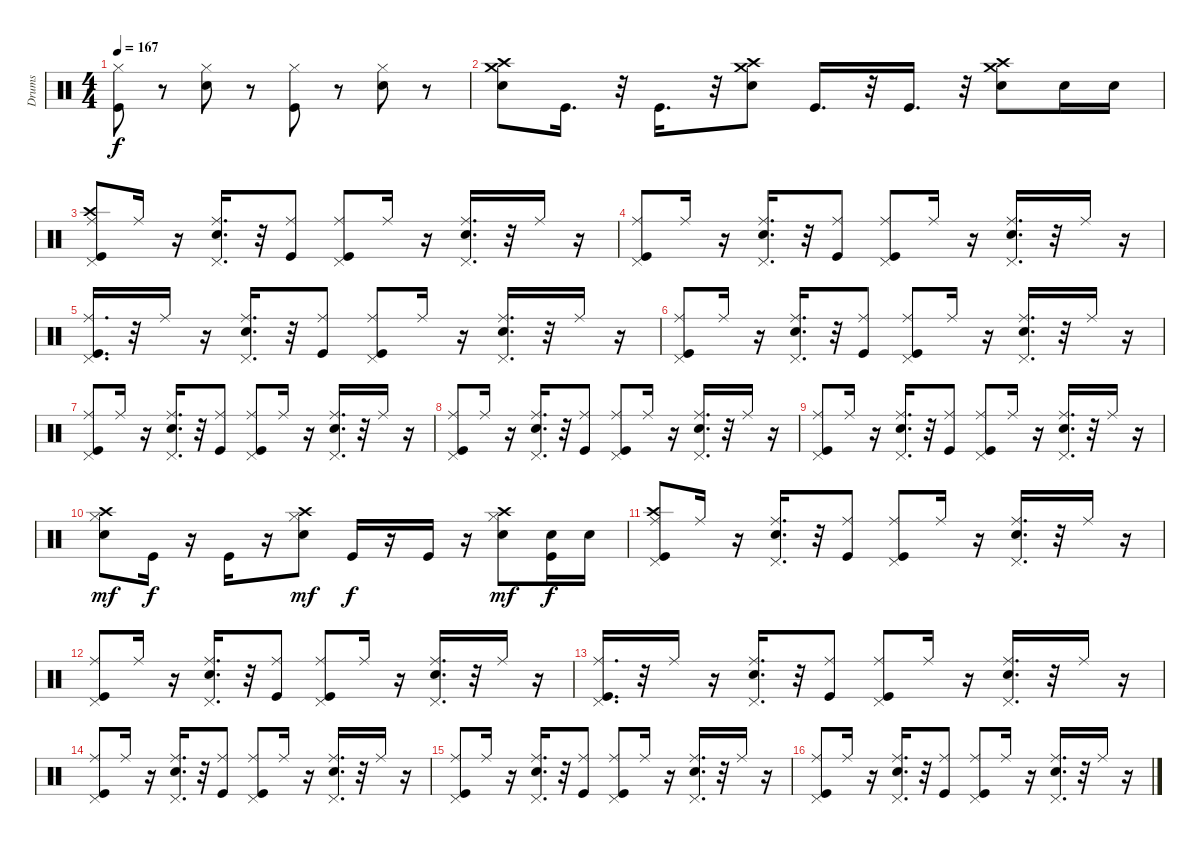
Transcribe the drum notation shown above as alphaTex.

\track ("Drums" "Drums") {instrument percussion}
\staff {score}
\articulation defaults
\ts (4 4)
\tempo 167
\clef neutral
\ks c
("Hi-Hat (closed)" "Kick (hit)").8{dy f} r.8 ("Hi-Hat (closed)" "Electric Snare (hit)").8 r.8 ("Hi-Hat (closed)" "Kick (hit)").8 r.8 ("Hi-Hat (closed)" "Electric Snare (hit)").8 r.8 |
("Crash medium (hit)" "Electric Snare (hit)" "Crash high (hit)").8 "Kick (hit)".16{d} r.32 "Kick (hit)".16{d} r.32 ("Crash medium (hit)" "Crash high (hit)" "Electric Snare (hit)").8 "Kick (hit)".16{d} r.32 "Kick (hit)".16{d} r.32 ("Crash medium (hit)" "Crash high (hit)" "Electric Snare (hit)").8 "Electric Snare (hit)".16 "Electric Snare (hit)".16 |
("Ride (middle)" "Crash high (hit)" "Kick (hit)" "Pedal Hi-Hat (hit)").8 "Ride (middle)".16 r.16 ("Electric Snare (hit)" "Pedal Hi-Hat (hit)" "Ride (middle)").16{d} r.32 ("Kick (hit)" "Ride (middle)").8 ("Kick (hit)" "Pedal Hi-Hat (hit)" "Ride (middle)").8 "Ride (middle)".16 r.16 ("Electric Snare (hit)" "Pedal Hi-Hat (hit)" "Ride (middle)").16{d} r.32 "Ride (middle)".16 r.16 |
("Ride (middle)" "Pedal Hi-Hat (hit)" "Kick (hit)").8 "Ride (middle)".16 r.16 ("Electric Snare (hit)" "Pedal Hi-Hat (hit)" "Ride (middle)").16{d} r.32 ("Kick (hit)" "Ride (middle)").8 ("Kick (hit)" "Pedal Hi-Hat (hit)" "Ride (middle)").8 "Ride (middle)".16 r.16 ("Ride (middle)" "Pedal Hi-Hat (hit)" "Electric Snare (hit)").16{d} r.32 "Ride (middle)".16 r.16 |
("Ride (middle)" "Pedal Hi-Hat (hit)" "Kick (hit)").16{d} r.32 "Ride (middle)".16 r.16 ("Ride (middle)" "Electric Snare (hit)" "Pedal Hi-Hat (hit)").16{d} r.32 ("Ride (middle)" "Kick (hit)").8 ("Pedal Hi-Hat (hit)" "Kick (hit)" "Ride (middle)").8 "Ride (middle)".16 r.16 ("Electric Snare (hit)" "Pedal Hi-Hat (hit)" "Ride (middle)").16{d} r.32 "Ride (middle)".16 r.16 |
("Kick (hit)" "Pedal Hi-Hat (hit)" "Ride (middle)").8 "Ride (middle)".16 r.16 ("Pedal Hi-Hat (hit)" "Electric Snare (hit)" "Ride (middle)").16{d} r.32 ("Kick (hit)" "Ride (middle)").8 ("Pedal Hi-Hat (hit)" "Ride (middle)" "Kick (hit)").8 "Ride (middle)".16 r.16 ("Pedal Hi-Hat (hit)" "Electric Snare (hit)" "Ride (middle)").16{d} r.32 "Ride (middle)".16 r.16 |
("Ride (middle)" "Kick (hit)" "Pedal Hi-Hat (hit)").8 "Ride (middle)".16 r.16 ("Pedal Hi-Hat (hit)" "Ride (middle)" "Electric Snare (hit)").16{d} r.32 ("Kick (hit)" "Ride (middle)").8 ("Pedal Hi-Hat (hit)" "Kick (hit)" "Ride (middle)").8 "Ride (middle)".16 r.16 ("Ride (middle)" "Electric Snare (hit)" "Pedal Hi-Hat (hit)").16{d} r.32 "Ride (middle)".16 r.16 |
("Ride (middle)" "Kick (hit)" "Pedal Hi-Hat (hit)").8 "Ride (middle)".16 r.16 ("Pedal Hi-Hat (hit)" "Ride (middle)" "Electric Snare (hit)").16{d} r.32 ("Kick (hit)" "Ride (middle)").8 ("Pedal Hi-Hat (hit)" "Kick (hit)" "Ride (middle)").8 "Ride (middle)".16 r.16 ("Electric Snare (hit)" "Pedal Hi-Hat (hit)" "Ride (middle)").16{d} r.32 "Ride (middle)".16 r.16 |
("Pedal Hi-Hat (hit)" "Ride (middle)" "Kick (hit)").8 "Ride (middle)".16 r.16 ("Ride (middle)" "Pedal Hi-Hat (hit)" "Electric Snare (hit)").16{d} r.32 ("Ride (middle)" "Kick (hit)").8 ("Pedal Hi-Hat (hit)" "Ride (middle)" "Kick (hit)").8 "Ride (middle)".16 r.16 ("Pedal Hi-Hat (hit)" "Ride (middle)" "Electric Snare (hit)").16{d} r.32 "Ride (middle)".16 r.16 |
("Hi-Hat (closed)" "Electric Snare (hit)" "Crash high (hit)").8{dy mf} "Kick (hit)".16{dy f} r.16 "Kick (hit)".16 r.16 ("Crash high (hit)" "Hi-Hat (closed)" "Electric Snare (hit)").8{dy mf} "Kick (hit)".16{dy f} r.16 "Kick (hit)".16 r.16 ("Electric Snare (hit)" "Hi-Hat (closed)" "Crash high (hit)").8{dy mf} ("Electric Snare (hit)" "Kick (hit)").16{dy f} "Electric Snare (hit)".16 |
("Crash high (hit)" "Pedal Hi-Hat (hit)" "Ride (middle)" "Kick (hit)").8 "Ride (middle)".16 r.16 ("Ride (middle)" "Pedal Hi-Hat (hit)" "Electric Snare (hit)").16{d} r.32 ("Ride (middle)" "Kick (hit)").8 ("Kick (hit)" "Pedal Hi-Hat (hit)" "Ride (middle)").8 "Ride (middle)".16 r.16 ("Electric Snare (hit)" "Pedal Hi-Hat (hit)" "Ride (middle)").16{d} r.32 "Ride (middle)".16 r.16 |
("Pedal Hi-Hat (hit)" "Kick (hit)" "Ride (middle)").8 "Ride (middle)".16 r.16 ("Pedal Hi-Hat (hit)" "Electric Snare (hit)" "Ride (middle)").16{d} r.32 ("Kick (hit)" "Ride (middle)").8 ("Pedal Hi-Hat (hit)" "Kick (hit)" "Ride (middle)").8 "Ride (middle)".16 r.16 ("Pedal Hi-Hat (hit)" "Electric Snare (hit)" "Ride (middle)").16{d} r.32 "Ride (middle)".16 r.16 |
("Ride (middle)" "Kick (hit)" "Pedal Hi-Hat (hit)").16{d} r.32 "Ride (middle)".16 r.16 ("Pedal Hi-Hat (hit)" "Electric Snare (hit)" "Ride (middle)").16{d} r.32 ("Kick (hit)" "Ride (middle)").8 ("Pedal Hi-Hat (hit)" "Ride (middle)" "Kick (hit)").8 "Ride (middle)".16 r.16 ("Electric Snare (hit)" "Pedal Hi-Hat (hit)" "Ride (middle)").16{d} r.32 "Ride (middle)".16 r.16 |
("Kick (hit)" "Pedal Hi-Hat (hit)" "Ride (middle)").8 "Ride (middle)".16 r.16 ("Electric Snare (hit)" "Ride (middle)" "Pedal Hi-Hat (hit)").16{d} r.32 ("Ride (middle)" "Kick (hit)").8 ("Pedal Hi-Hat (hit)" "Ride (middle)" "Kick (hit)").8 "Ride (middle)".16 r.16 ("Electric Snare (hit)" "Pedal Hi-Hat (hit)" "Ride (middle)").16{d} r.32 "Ride (middle)".16 r.16 |
("Kick (hit)" "Pedal Hi-Hat (hit)" "Ride (middle)").8 "Ride (middle)".16 r.16 ("Pedal Hi-Hat (hit)" "Electric Snare (hit)" "Ride (middle)").16{d} r.32 ("Kick (hit)" "Ride (middle)").8 ("Kick (hit)" "Pedal Hi-Hat (hit)" "Ride (middle)").8 "Ride (middle)".16 r.16 ("Electric Snare (hit)" "Pedal Hi-Hat (hit)" "Ride (middle)").16{d} r.32 "Ride (middle)".16 r.16 |
("Pedal Hi-Hat (hit)" "Kick (hit)" "Ride (middle)").8 "Ride (middle)".16 r.16 ("Pedal Hi-Hat (hit)" "Ride (middle)" "Electric Snare (hit)").16{d} r.32 ("Ride (middle)" "Kick (hit)").8 ("Pedal Hi-Hat (hit)" "Kick (hit)" "Ride (middle)").8 "Ride (middle)".16 r.16 ("Electric Snare (hit)" "Ride (middle)" "Pedal Hi-Hat (hit)").16{d} r.32 "Ride (middle)".16 r.16
